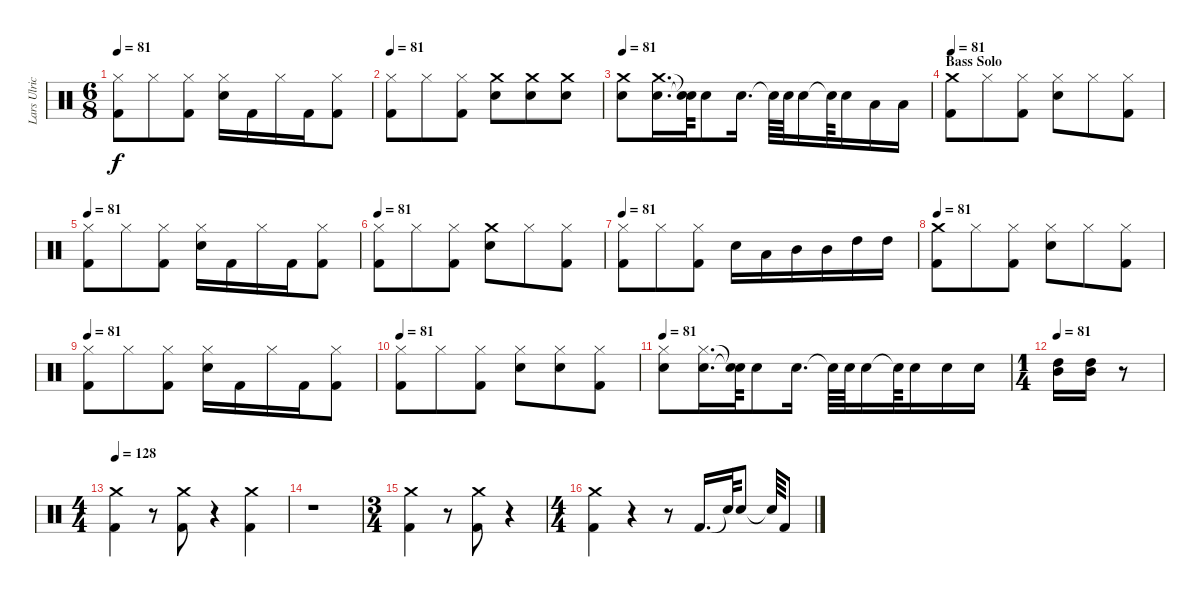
\track ("Lars Ulrich (Drums)" "Lars Ulric") {instrument percussion}
\staff {score}
\articulation defaults
\ts (6 8)
\tempo 81
\clef neutral
\ks c
("Hi-Hat (closed)" "Kick (hit) 2").8{dy f} "Hi-Hat (closed)".8 ("Kick (hit) 2" "Hi-Hat (closed)").8 ("Snare (hit) 2" "Hi-Hat (closed)").16 "Kick (hit) 2".16 "Hi-Hat (closed)".16 "Kick (hit) 2".16 ("Kick (hit) 2" "Hi-Hat (closed)").8 |
\tempo 81
("Hi-Hat (closed)" "Kick (hit) 2").8 "Hi-Hat (closed)".8 ("Kick (hit) 2" "Hi-Hat (closed)").8 ("Crash medium (hit)" "Snare (hit) 2").8 ("Crash medium (hit)" "Snare (hit) 2").8 ("Crash medium (hit)" "Snare (hit) 2").8 |
\tempo 81
("Snare (hit) 2" "Crash medium (hit)").8 ("Snare (hit) 2" "Crash medium (hit)").16{d} ("Snare (hit)"{t} "Snare (hit)"{t}).64 "Snare (hit) 2".8 "Snare (hit) 2".16{d} "Snare (hit)"{t}.64 "Snare (hit) 2".64 "Snare (hit) 2".16 "Snare (hit)"{t}.64 "Snare (hit) 2".16 "Low Tom (hit)".16 "Low Tom (hit)".16 |
\section ("" "Bass Solo")
\tempo 81
("Kick (hit) 2" "Crash medium (hit)").8 "Hi-Hat (closed)".8 ("Kick (hit) 2" "Hi-Hat (closed)").8 ("Snare (hit) 2" "Hi-Hat (closed)").8 "Hi-Hat (closed)".8 ("Kick (hit) 2" "Hi-Hat (closed)").8 |
\tempo 81
("Hi-Hat (closed)" "Kick (hit) 2").8 "Hi-Hat (closed)".8 ("Kick (hit) 2" "Hi-Hat (closed)").8 ("Snare (hit) 2" "Hi-Hat (closed)").16 "Kick (hit) 2".16 "Hi-Hat (closed)".16 "Kick (hit) 2".16 ("Kick (hit) 2" "Hi-Hat (closed)").8 |
\tempo 81
("Hi-Hat (closed)" "Kick (hit) 2").8 "Hi-Hat (closed)".8 ("Hi-Hat (closed)" "Kick (hit) 2").8 ("Crash medium (hit)" "Snare (hit) 2").8 "Hi-Hat (closed)".8 ("Hi-Hat (closed)" "Kick (hit) 2").8 |
\tempo 81
("Hi-Hat (closed)" "Kick (hit) 2").8 "Hi-Hat (closed)".8 ("Kick (hit) 2" "Hi-Hat (closed)").8 "Snare (hit) 2".16 "Low Tom (hit)".16 "Mid Tom (hit)".16 "Mid Tom (hit)".16 "High Tom (hit)".16 "High Tom (hit)".16 |
\tempo 81
("Kick (hit) 2" "Crash medium (hit)").8 "Hi-Hat (closed)".8 ("Kick (hit) 2" "Hi-Hat (closed)").8 ("Snare (hit) 2" "Hi-Hat (closed)").8 "Hi-Hat (closed)".8 ("Kick (hit) 2" "Hi-Hat (closed)").8 |
\tempo 81
("Hi-Hat (closed)" "Kick (hit) 2").8 "Hi-Hat (closed)".8 ("Kick (hit) 2" "Hi-Hat (closed)").8 ("Snare (hit) 2" "Hi-Hat (closed)").16 "Kick (hit) 2".16 "Hi-Hat (closed)".16 "Kick (hit) 2".16 ("Kick (hit) 2" "Hi-Hat (closed)").8 |
\tempo 81
("Kick (hit) 2" "Hi-Hat (closed)").8 "Hi-Hat (closed)".8 ("Kick (hit) 2" "Hi-Hat (closed)").8 ("Snare (hit) 2" "Hi-Hat (closed)").8 ("Hi-Hat (closed)" "Snare (hit) 2").8 ("Kick (hit) 2" "Hi-Hat (closed)").8 |
\tempo 81
("Hi-Hat (closed)" "Snare (hit) 2").8 ("Hi-Hat (closed)" "Snare (hit) 2").16{d} ("Snare (hit)"{t} "Snare (hit)"{t}).64 "Snare (hit) 2".8 "Snare (hit) 2".16{d} "Snare (hit)"{t}.64 "Snare (hit) 2".64 "Snare (hit) 2".16 "Snare (hit)"{t}.64 "Snare (hit) 2".16 "Snare (hit) 2".16 "Snare (hit) 2".16 |
\ts (1 4)
\tempo 81
("High Tom (hit)" "Mid Tom (hit)").16 ("High Tom (hit)" "Mid Tom (hit)").16 r.8 |
\ts (4 4)
\tempo 128
("Kick (hit) 2" "Crash medium (hit)").4 r.8 ("Kick (hit) 2" "Crash medium (hit)").8 r.4 ("Kick (hit) 2" "Crash medium (hit)").4 |
r.1 |
\ts (3 4)
("Kick (hit) 2" "Crash medium (hit)").4 r.8 ("Kick (hit) 2" "Crash medium (hit)").8 r.4 |
\ts (4 4)
("Kick (hit) 2" "Crash medium (hit)").4 r.4 r.8 "Kick (hit) 2".16{d} "Snare (hit)"{t}.64 "Snare (hit) 2".8 "Snare (hit)"{t}.64 "Kick (hit) 2".8
